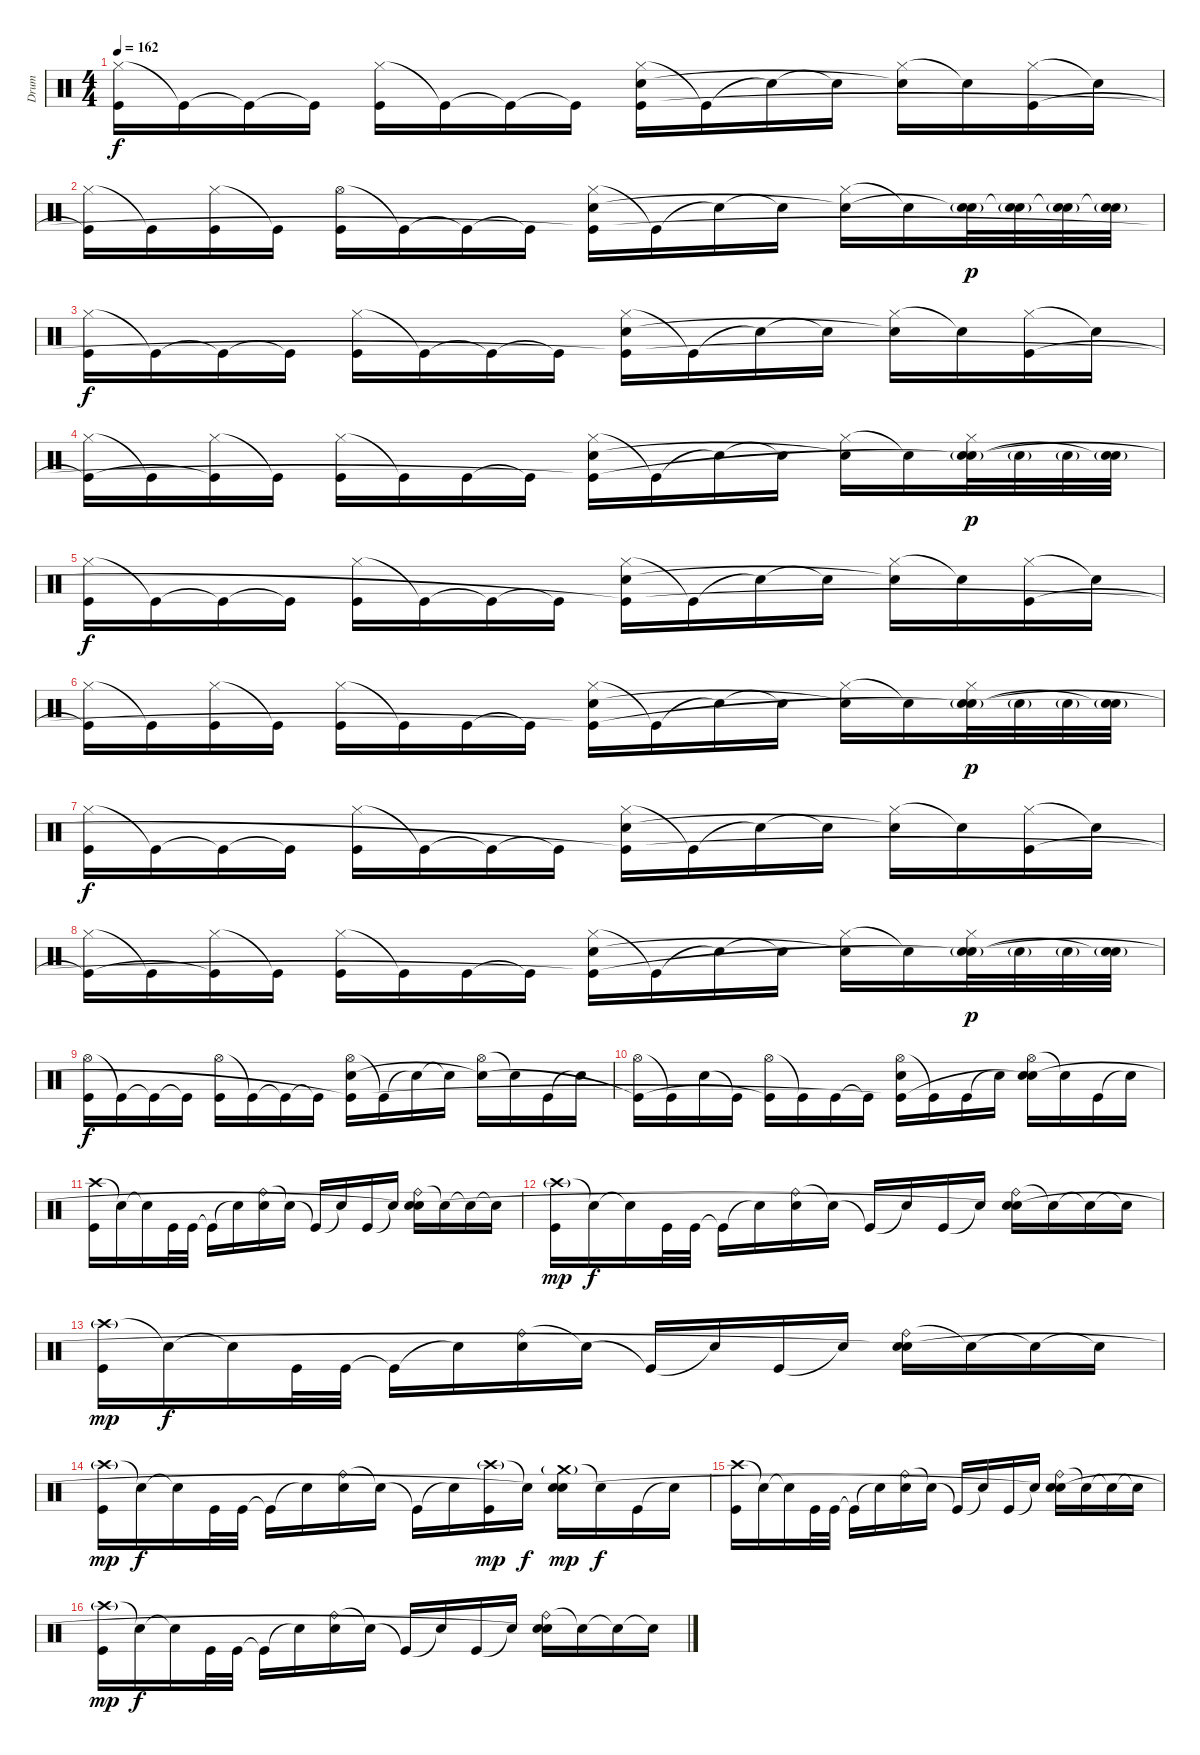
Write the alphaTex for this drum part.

\track ("Drum" "Drum") {instrument percussion}
\staff {score}
\articulation defaults
\ts (4 4)
\tempo 162
\clef neutral
\ks c
("Hi-Hat (closed)" "Kick (hit)").16{dy f} "Kick (hit)"{t}.16 "Kick (hit)"{t}.16 "Kick (hit)"{t}.16 ("Hi-Hat (closed)" "Kick (hit)").16 "Kick (hit)"{t}.16 "Kick (hit)"{t}.16 "Kick (hit)"{t}.16 ("Hi-Hat (closed)" "Electric Snare (hit)" "Kick (hit)"{t}).16 "Kick (hit)"{t}.16 "Snare (hit)"{t}.16 "Snare (hit)"{t}.16 ("Hi-Hat (closed)" "Snare (hit)"{t}).16 "Snare (hit)"{t}.16 ("Hi-Hat (closed)" "Kick (hit)").16 "Snare (hit)"{t}.16 |
("Hi-Hat (closed)" "Kick (hit)"{t}).16 "Kick (hit)"{t}.16 ("Hi-Hat (closed)" "Kick (hit)").16 "Kick (hit)"{t}.16 ("Hi-Hat (open)" "Kick (hit)").16 "Kick (hit)"{t}.16 "Kick (hit)"{t}.16 "Kick (hit)"{t}.16 ("Hi-Hat (closed)" "Electric Snare (hit)" "Kick (hit)"{t}).16 "Kick (hit)"{t}.16 "Snare (hit)"{t}.16 "Snare (hit)"{t}.16 ("Hi-Hat (closed)" "Snare (hit)"{t}).16 "Snare (hit)"{t}.16 ("Electric Snare (hit)"{g} "Snare (hit)"{t}).32{dy p} ("Electric Snare (hit)"{g} "Snare (hit)"{t}).32 ("Electric Snare (hit)"{g} "Snare (hit)"{t}).32 ("Electric Snare (hit)"{g} "Snare (hit)"{t}).32 |
("Hi-Hat (closed)" "Kick (hit)").16{dy f} "Kick (hit)"{t}.16 "Kick (hit)"{t}.16 "Kick (hit)"{t}.16 ("Hi-Hat (closed)" "Kick (hit)").16 "Kick (hit)"{t}.16 "Kick (hit)"{t}.16 "Kick (hit)"{t}.16 ("Hi-Hat (closed)" "Electric Snare (hit)" "Kick (hit)"{t}).16 "Kick (hit)"{t}.16 "Snare (hit)"{t}.16 "Snare (hit)"{t}.16 ("Hi-Hat (closed)" "Snare (hit)"{t}).16 "Snare (hit)"{t}.16 ("Hi-Hat (closed)" "Kick (hit)").16 "Snare (hit)"{t}.16 |
("Hi-Hat (closed)" "Kick (hit)"{t}).16 "Kick (hit)"{t}.16 ("Hi-Hat (closed)" "Kick (hit)"{t}).16 "Kick (hit)"{t}.16 ("Hi-Hat (closed)" "Kick (hit)").16 "Kick (hit)"{t}.16 "Kick (hit)".16 "Kick (hit)"{t}.16 ("Hi-Hat (closed)" "Electric Snare (hit)" "Kick (hit)"{t}).16 "Kick (hit)"{t}.16 "Snare (hit)"{t}.16 "Snare (hit)"{t}.16 ("Hi-Hat (closed)" "Snare (hit)"{t}).16 "Snare (hit)"{t}.16 ("Hi-Hat (closed)" "Electric Snare (hit)"{g} "Snare (hit)"{t}).32{dy p} "Electric Snare (hit)"{g}.32 "Electric Snare (hit)"{g}.32 ("Electric Snare (hit)"{g} "Snare (hit)"{t}).32 |
("Hi-Hat (closed)" "Kick (hit)").16{dy f} "Kick (hit)"{t}.16 "Kick (hit)"{t}.16 "Kick (hit)"{t}.16 ("Hi-Hat (closed)" "Kick (hit)").16 "Kick (hit)"{t}.16 "Kick (hit)"{t}.16 "Kick (hit)"{t}.16 ("Hi-Hat (closed)" "Electric Snare (hit)" "Kick (hit)"{t}).16 "Kick (hit)"{t}.16 "Snare (hit)"{t}.16 "Snare (hit)"{t}.16 ("Hi-Hat (closed)" "Snare (hit)"{t}).16 "Snare (hit)"{t}.16 ("Hi-Hat (closed)" "Kick (hit)").16 "Snare (hit)"{t}.16 |
("Hi-Hat (closed)" "Kick (hit)"{t}).16 "Kick (hit)"{t}.16 ("Hi-Hat (closed)" "Kick (hit)").16 "Kick (hit)"{t}.16 ("Hi-Hat (closed)" "Kick (hit)").16 "Kick (hit)"{t}.16 "Kick (hit)".16 "Kick (hit)"{t}.16 ("Hi-Hat (closed)" "Electric Snare (hit)" "Kick (hit)"{t}).16 "Kick (hit)"{t}.16 "Snare (hit)"{t}.16 "Snare (hit)"{t}.16 ("Hi-Hat (closed)" "Snare (hit)"{t}).16 "Snare (hit)"{t}.16 ("Hi-Hat (closed)" "Electric Snare (hit)"{g} "Snare (hit)"{t}).32{dy p} "Electric Snare (hit)"{g}.32 "Electric Snare (hit)"{g}.32 ("Electric Snare (hit)"{g} "Snare (hit)"{t}).32 |
("Hi-Hat (closed)" "Kick (hit)").16{dy f} "Kick (hit)"{t}.16 "Kick (hit)"{t}.16 "Kick (hit)"{t}.16 ("Hi-Hat (closed)" "Kick (hit)").16 "Kick (hit)"{t}.16 "Kick (hit)"{t}.16 "Kick (hit)"{t}.16 ("Hi-Hat (closed)" "Electric Snare (hit)" "Kick (hit)"{t}).16 "Kick (hit)"{t}.16 "Snare (hit)"{t}.16 "Snare (hit)"{t}.16 ("Hi-Hat (closed)" "Snare (hit)"{t}).16 "Snare (hit)"{t}.16 ("Hi-Hat (closed)" "Kick (hit)").16 "Snare (hit)"{t}.16 |
("Hi-Hat (closed)" "Kick (hit)"{t}).16 "Kick (hit)"{t}.16 ("Hi-Hat (closed)" "Kick (hit)"{t}).16 "Kick (hit)"{t}.16 ("Hi-Hat (closed)" "Kick (hit)").16 "Kick (hit)"{t}.16 "Kick (hit)".16 "Kick (hit)"{t}.16 ("Hi-Hat (closed)" "Electric Snare (hit)" "Kick (hit)"{t}).16 "Kick (hit)"{t}.16 "Snare (hit)"{t}.16 "Snare (hit)"{t}.16 ("Hi-Hat (closed)" "Snare (hit)"{t}).16 "Snare (hit)"{t}.16 ("Hi-Hat (closed)" "Electric Snare (hit)"{g} "Snare (hit)"{t}).32{dy p} "Electric Snare (hit)"{g}.32 "Electric Snare (hit)"{g}.32 ("Electric Snare (hit)"{g} "Snare (hit)"{t}).32 |
("Hi-Hat (open)" "Kick (hit)").16{dy f} "Kick (hit)"{t}.16 "Kick (hit)"{t}.16 "Kick (hit)"{t}.16 ("Hi-Hat (open)" "Kick (hit)").16 "Kick (hit)"{t}.16 "Kick (hit)"{t}.16 "Kick (hit)"{t}.16 ("Hi-Hat (open)" "Electric Snare (hit)" "Kick (hit)"{t}).16 "Kick (hit)"{t}.16 "Snare (hit)"{t}.16 "Snare (hit)"{t}.16 ("Hi-Hat (open)" "Snare (hit)"{t}).16 "Snare (hit)"{t}.16 "Kick (hit)".16 "Snare (hit)"{t}.16 |
("Hi-Hat (open)" "Kick (hit)"{t}).16 "Kick (hit)"{t}.16 "Electric Snare (hit)".16 "Kick (hit)"{t}.16 ("Hi-Hat (open)" "Kick (hit)"{t}).16 "Kick (hit)"{t}.16 "Kick (hit)".16 "Kick (hit)"{t}.16 ("Hi-Hat (open)" "Electric Snare (hit)" "Kick (hit)"{t}).16 "Kick (hit)"{t}.16 "Kick (hit)".16 "Snare (hit)"{t}.16 ("Hi-Hat (open)" "Electric Snare (hit)" "Snare (hit)"{t}).16 "Snare (hit)"{t}.16 "Kick (hit)".16 "Snare (hit)"{t}.16 |
("Crash high (hit)" "Kick (hit)").16 "Snare (hit)"{t}.16 "Snare (hit)"{t}.16 "Kick (hit)".32 "Kick (hit)".32 "Kick (hit)"{t}.16 "Snare (hit)"{t}.16 ("Ride (bell)" "Electric Snare (hit)").16 "Snare (hit)"{t}.16 "Kick (hit)"{t}.16 "Snare (hit)"{t}.16 "Kick (hit)".16 "Snare (hit)"{t}.16 ("Ride (bell)" "Electric Snare (hit)" "Snare (hit)"{t}).16 "Snare (hit)"{t}.16 "Snare (hit)"{t}.16 "Snare (hit)"{t}.16 |
("Crash high (hit)"{g} "Kick (hit)").16{dy mp} "Snare (hit)"{t}.16{dy f} "Snare (hit)"{t}.16 "Kick (hit)".32 "Kick (hit)".32 "Kick (hit)"{t}.16 "Snare (hit)"{t}.16 ("Ride (bell)" "Electric Snare (hit)").16 "Snare (hit)"{t}.16 "Kick (hit)"{t}.16 "Snare (hit)"{t}.16 "Kick (hit)".16 "Snare (hit)"{t}.16 ("Ride (bell)" "Electric Snare (hit)" "Snare (hit)"{t}).16 "Snare (hit)"{t}.16 "Snare (hit)"{t}.16 "Snare (hit)"{t}.16 |
("Crash high (hit)"{g} "Kick (hit)").16{dy mp} "Snare (hit)"{t}.16{dy f} "Snare (hit)"{t}.16 "Kick (hit)".32 "Kick (hit)".32 "Kick (hit)"{t}.16 "Snare (hit)"{t}.16 ("Ride (bell)" "Electric Snare (hit)").16 "Snare (hit)"{t}.16 "Kick (hit)"{t}.16 "Snare (hit)"{t}.16 "Kick (hit)".16 "Snare (hit)"{t}.16 ("Ride (bell)" "Electric Snare (hit)" "Snare (hit)"{t}).16 "Snare (hit)"{t}.16 "Snare (hit)"{t}.16 "Snare (hit)"{t}.16 |
("Crash high (hit)"{g} "Kick (hit)").16{dy mp} "Snare (hit)"{t}.16{dy f} "Snare (hit)"{t}.16 "Kick (hit)".32 "Kick (hit)".32 "Kick (hit)"{t}.16 "Snare (hit)"{t}.16 ("Ride (bell)" "Electric Snare (hit)").16 "Snare (hit)"{t}.16 "Kick (hit)"{t}.16 "Snare (hit)"{t}.16 ("Crash high (hit)"{g} "Kick (hit)").16{dy mp} "Snare (hit)"{t}.16{dy f} ("Crash medium (hit)"{g} "Electric Snare (hit)" "Snare (hit)"{t}).16{dy mp} "Snare (hit)"{t}.16{dy f} "Kick (hit)".16 "Snare (hit)"{t}.16 |
("Crash high (hit)" "Kick (hit)").16 "Snare (hit)"{t}.16 "Snare (hit)"{t}.16 "Kick (hit)".32 "Kick (hit)".32 "Kick (hit)"{t}.16 "Snare (hit)"{t}.16 ("Ride (bell)" "Electric Snare (hit)").16 "Snare (hit)"{t}.16 "Kick (hit)"{t}.16 "Snare (hit)"{t}.16 "Kick (hit)".16 "Snare (hit)"{t}.16 ("Ride (bell)" "Electric Snare (hit)" "Snare (hit)"{t}).16 "Snare (hit)"{t}.16 "Snare (hit)"{t}.16 "Snare (hit)"{t}.16 |
("Crash high (hit)"{g} "Kick (hit)").16{dy mp} "Snare (hit)"{t}.16{dy f} "Snare (hit)"{t}.16 "Kick (hit)".32 "Kick (hit)".32 "Kick (hit)"{t}.16 "Snare (hit)"{t}.16 ("Ride (bell)" "Electric Snare (hit)").16 "Snare (hit)"{t}.16 "Kick (hit)"{t}.16 "Snare (hit)"{t}.16 "Kick (hit)".16 "Snare (hit)"{t}.16 ("Ride (bell)" "Electric Snare (hit)" "Snare (hit)"{t}).16 "Snare (hit)"{t}.16 "Snare (hit)"{t}.16 "Snare (hit)"{t}.16
